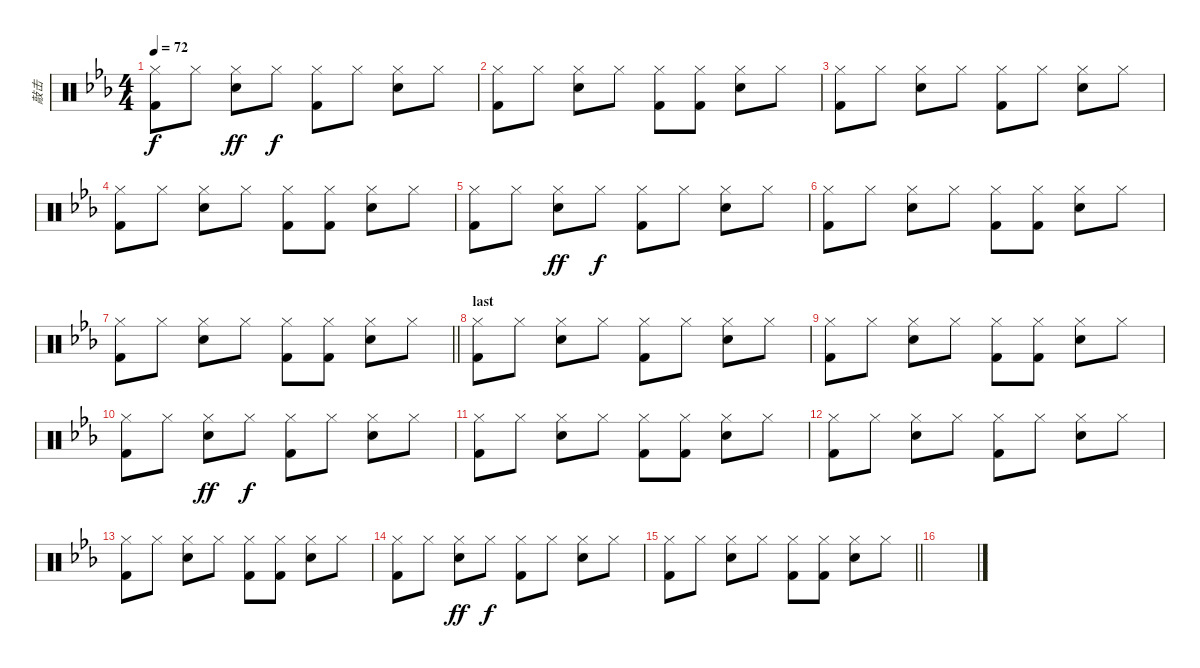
\track ("敲击" "敲击") {instrument percussion}
\staff {score}
\articulation defaults
\ts (4 4)
\tempo 72
\clef neutral
\ks eb
("Hi-Hat (closed)" "Kick (hit) 2").8{dy f} "Hi-Hat (closed)".8 ("Hi-Hat (closed)" "Snare (hit) 2").8{dy ff} "Hi-Hat (closed)".8{dy f} ("Hi-Hat (closed)" "Kick (hit) 2").8 "Hi-Hat (closed)".8 ("Hi-Hat (closed)" "Snare (hit) 2").8 "Hi-Hat (closed)".8 |
("Hi-Hat (closed)" "Kick (hit) 2").8 "Hi-Hat (closed)".8 ("Hi-Hat (closed)" "Snare (hit) 2").8 "Hi-Hat (closed)".8 ("Hi-Hat (closed)" "Kick (hit) 2").8 ("Hi-Hat (closed)" "Kick (hit) 2").8 ("Hi-Hat (closed)" "Snare (hit) 2").8 "Hi-Hat (closed)".8 |
("Hi-Hat (closed)" "Kick (hit) 2").8 "Hi-Hat (closed)".8 ("Hi-Hat (closed)" "Snare (hit) 2").8 "Hi-Hat (closed)".8 ("Hi-Hat (closed)" "Kick (hit) 2").8 "Hi-Hat (closed)".8 ("Hi-Hat (closed)" "Snare (hit) 2").8 "Hi-Hat (closed)".8 |
("Hi-Hat (closed)" "Kick (hit) 2").8 "Hi-Hat (closed)".8 ("Hi-Hat (closed)" "Snare (hit) 2").8 "Hi-Hat (closed)".8 ("Hi-Hat (closed)" "Kick (hit) 2").8 ("Hi-Hat (closed)" "Kick (hit) 2").8 ("Hi-Hat (closed)" "Snare (hit) 2").8 "Hi-Hat (closed)".8 |
("Hi-Hat (closed)" "Kick (hit) 2").8 "Hi-Hat (closed)".8 ("Hi-Hat (closed)" "Snare (hit) 2").8{dy ff} "Hi-Hat (closed)".8{dy f} ("Hi-Hat (closed)" "Kick (hit) 2").8 "Hi-Hat (closed)".8 ("Hi-Hat (closed)" "Snare (hit) 2").8 "Hi-Hat (closed)".8 |
("Hi-Hat (closed)" "Kick (hit) 2").8 "Hi-Hat (closed)".8 ("Hi-Hat (closed)" "Snare (hit) 2").8 "Hi-Hat (closed)".8 ("Hi-Hat (closed)" "Kick (hit) 2").8 ("Hi-Hat (closed)" "Kick (hit) 2").8 ("Hi-Hat (closed)" "Snare (hit) 2").8 "Hi-Hat (closed)".8 |
\barLineRight lightlight
("Hi-Hat (closed)" "Kick (hit) 2").8 "Hi-Hat (closed)".8 ("Hi-Hat (closed)" "Snare (hit) 2").8 "Hi-Hat (closed)".8 ("Hi-Hat (closed)" "Kick (hit) 2").8 ("Hi-Hat (closed)" "Kick (hit) 2").8 ("Hi-Hat (closed)" "Snare (hit) 2").8 "Hi-Hat (closed)".8 |
\section ("" "last")
("Hi-Hat (closed)" "Kick (hit) 2").8 "Hi-Hat (closed)".8 ("Hi-Hat (closed)" "Snare (hit) 2").8 "Hi-Hat (closed)".8 ("Hi-Hat (closed)" "Kick (hit) 2").8 "Hi-Hat (closed)".8 ("Hi-Hat (closed)" "Snare (hit) 2").8 "Hi-Hat (closed)".8 |
("Hi-Hat (closed)" "Kick (hit) 2").8 "Hi-Hat (closed)".8 ("Hi-Hat (closed)" "Snare (hit) 2").8 "Hi-Hat (closed)".8 ("Hi-Hat (closed)" "Kick (hit) 2").8 ("Hi-Hat (closed)" "Kick (hit) 2").8 ("Hi-Hat (closed)" "Snare (hit) 2").8 "Hi-Hat (closed)".8 |
("Hi-Hat (closed)" "Kick (hit) 2").8 "Hi-Hat (closed)".8 ("Hi-Hat (closed)" "Snare (hit) 2").8{dy ff} "Hi-Hat (closed)".8{dy f} ("Hi-Hat (closed)" "Kick (hit) 2").8 "Hi-Hat (closed)".8 ("Hi-Hat (closed)" "Snare (hit) 2").8 "Hi-Hat (closed)".8 |
("Hi-Hat (closed)" "Kick (hit) 2").8 "Hi-Hat (closed)".8 ("Hi-Hat (closed)" "Snare (hit) 2").8 "Hi-Hat (closed)".8 ("Hi-Hat (closed)" "Kick (hit) 2").8 ("Hi-Hat (closed)" "Kick (hit) 2").8 ("Hi-Hat (closed)" "Snare (hit) 2").8 "Hi-Hat (closed)".8 |
("Hi-Hat (closed)" "Kick (hit) 2").8 "Hi-Hat (closed)".8 ("Hi-Hat (closed)" "Snare (hit) 2").8 "Hi-Hat (closed)".8 ("Hi-Hat (closed)" "Kick (hit) 2").8 "Hi-Hat (closed)".8 ("Hi-Hat (closed)" "Snare (hit) 2").8 "Hi-Hat (closed)".8 |
("Hi-Hat (closed)" "Kick (hit) 2").8 "Hi-Hat (closed)".8 ("Hi-Hat (closed)" "Snare (hit) 2").8 "Hi-Hat (closed)".8 ("Hi-Hat (closed)" "Kick (hit) 2").8 ("Hi-Hat (closed)" "Kick (hit) 2").8 ("Hi-Hat (closed)" "Snare (hit) 2").8 "Hi-Hat (closed)".8 |
("Hi-Hat (closed)" "Kick (hit) 2").8 "Hi-Hat (closed)".8 ("Hi-Hat (closed)" "Snare (hit) 2").8{dy ff} "Hi-Hat (closed)".8{dy f} ("Hi-Hat (closed)" "Kick (hit) 2").8 "Hi-Hat (closed)".8 ("Hi-Hat (closed)" "Snare (hit) 2").8 "Hi-Hat (closed)".8 |
\barLineRight lightlight
("Hi-Hat (closed)" "Kick (hit) 2").8 "Hi-Hat (closed)".8 ("Hi-Hat (closed)" "Snare (hit) 2").8 "Hi-Hat (closed)".8 ("Hi-Hat (closed)" "Kick (hit) 2").8 ("Hi-Hat (closed)" "Kick (hit) 2").8 ("Hi-Hat (closed)" "Snare (hit) 2").8 "Hi-Hat (closed)".8 |
\section ("" "")
